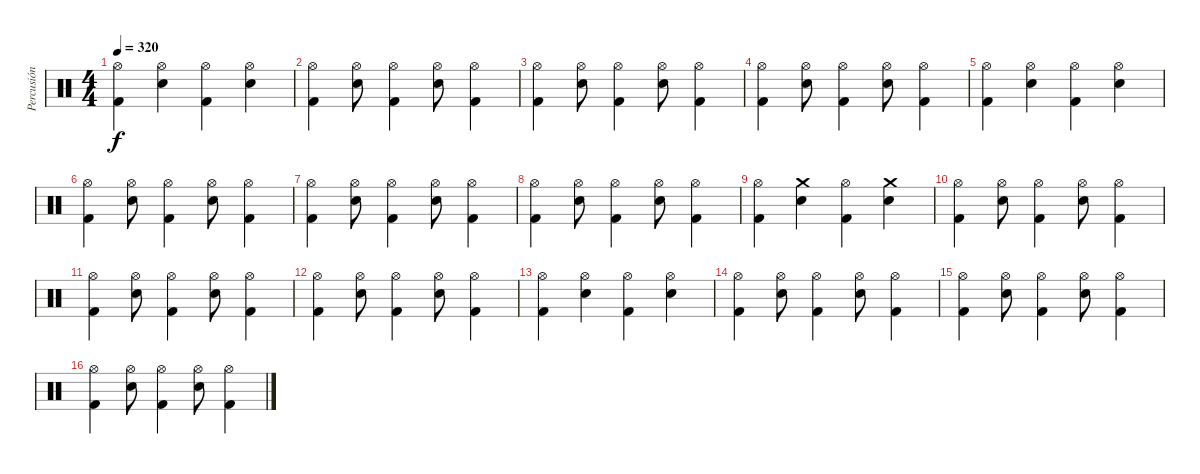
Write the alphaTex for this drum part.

\track ("Percusión" "Percusión") {instrument percussion}
\staff {score}
\articulation defaults
\ts (4 4)
\tempo 320
\clef neutral
\ks c
("Hi-Hat (open)" "Kick (hit) 2").4{dy f} ("Hi-Hat (open)" "Electric Snare (hit)").4 ("Hi-Hat (open)" "Kick (hit) 2").4 ("Hi-Hat (open)" "Electric Snare (hit)").4 |
("Hi-Hat (open)" "Kick (hit) 2").4 ("Hi-Hat (open)" "Electric Snare (hit)").8 ("Hi-Hat (open)" "Kick (hit) 2").4 ("Hi-Hat (open)" "Electric Snare (hit)").8 ("Hi-Hat (open)" "Kick (hit) 2").4 |
("Hi-Hat (open)" "Kick (hit) 2").4 ("Hi-Hat (open)" "Electric Snare (hit)").8 ("Hi-Hat (open)" "Kick (hit) 2").4 ("Hi-Hat (open)" "Electric Snare (hit)").8 ("Hi-Hat (open)" "Kick (hit) 2").4 |
("Hi-Hat (open)" "Kick (hit) 2").4 ("Hi-Hat (open)" "Electric Snare (hit)").8 ("Hi-Hat (open)" "Kick (hit) 2").4 ("Hi-Hat (open)" "Electric Snare (hit)").8 ("Hi-Hat (open)" "Kick (hit) 2").4 |
("Hi-Hat (open)" "Kick (hit) 2").4 ("Hi-Hat (open)" "Electric Snare (hit)").4 ("Hi-Hat (open)" "Kick (hit) 2").4 ("Hi-Hat (open)" "Electric Snare (hit)").4 |
("Hi-Hat (open)" "Kick (hit) 2").4 ("Hi-Hat (open)" "Electric Snare (hit)").8 ("Hi-Hat (open)" "Kick (hit) 2").4 ("Hi-Hat (open)" "Electric Snare (hit)").8 ("Hi-Hat (open)" "Kick (hit) 2").4 |
("Hi-Hat (open)" "Kick (hit) 2").4 ("Hi-Hat (open)" "Electric Snare (hit)").8 ("Hi-Hat (open)" "Kick (hit) 2").4 ("Hi-Hat (open)" "Electric Snare (hit)").8 ("Hi-Hat (open)" "Kick (hit) 2").4 |
("Hi-Hat (open)" "Kick (hit) 2").4 ("Hi-Hat (open)" "Electric Snare (hit)").8 ("Hi-Hat (open)" "Kick (hit) 2").4 ("Hi-Hat (open)" "Electric Snare (hit)").8 ("Hi-Hat (open)" "Kick (hit) 2").4 |
("Hi-Hat (open)" "Kick (hit) 2").4 ("Crash medium (hit)" "Electric Snare (hit)").4 ("Hi-Hat (open)" "Kick (hit) 2").4 ("Crash medium (hit)" "Electric Snare (hit)").4 |
("Hi-Hat (open)" "Kick (hit) 2").4 ("Hi-Hat (open)" "Electric Snare (hit)").8 ("Hi-Hat (open)" "Kick (hit) 2").4 ("Hi-Hat (open)" "Electric Snare (hit)").8 ("Hi-Hat (open)" "Kick (hit) 2").4 |
("Hi-Hat (open)" "Kick (hit) 2").4 ("Hi-Hat (open)" "Electric Snare (hit)").8 ("Hi-Hat (open)" "Kick (hit) 2").4 ("Hi-Hat (open)" "Electric Snare (hit)").8 ("Hi-Hat (open)" "Kick (hit) 2").4 |
("Hi-Hat (open)" "Kick (hit) 2").4 ("Hi-Hat (open)" "Electric Snare (hit)").8 ("Hi-Hat (open)" "Kick (hit) 2").4 ("Hi-Hat (open)" "Electric Snare (hit)").8 ("Hi-Hat (open)" "Kick (hit) 2").4 |
("Hi-Hat (open)" "Kick (hit) 2").4 ("Hi-Hat (open)" "Electric Snare (hit)").4 ("Hi-Hat (open)" "Kick (hit) 2").4 ("Hi-Hat (open)" "Electric Snare (hit)").4 |
("Hi-Hat (open)" "Kick (hit) 2").4 ("Hi-Hat (open)" "Electric Snare (hit)").8 ("Hi-Hat (open)" "Kick (hit) 2").4 ("Hi-Hat (open)" "Electric Snare (hit)").8 ("Hi-Hat (open)" "Kick (hit) 2").4 |
("Hi-Hat (open)" "Kick (hit) 2").4 ("Hi-Hat (open)" "Electric Snare (hit)").8 ("Hi-Hat (open)" "Kick (hit) 2").4 ("Hi-Hat (open)" "Electric Snare (hit)").8 ("Hi-Hat (open)" "Kick (hit) 2").4 |
("Hi-Hat (open)" "Kick (hit) 2").4 ("Hi-Hat (open)" "Electric Snare (hit)").8 ("Hi-Hat (open)" "Kick (hit) 2").4 ("Hi-Hat (open)" "Electric Snare (hit)").8 ("Hi-Hat (open)" "Kick (hit) 2").4
